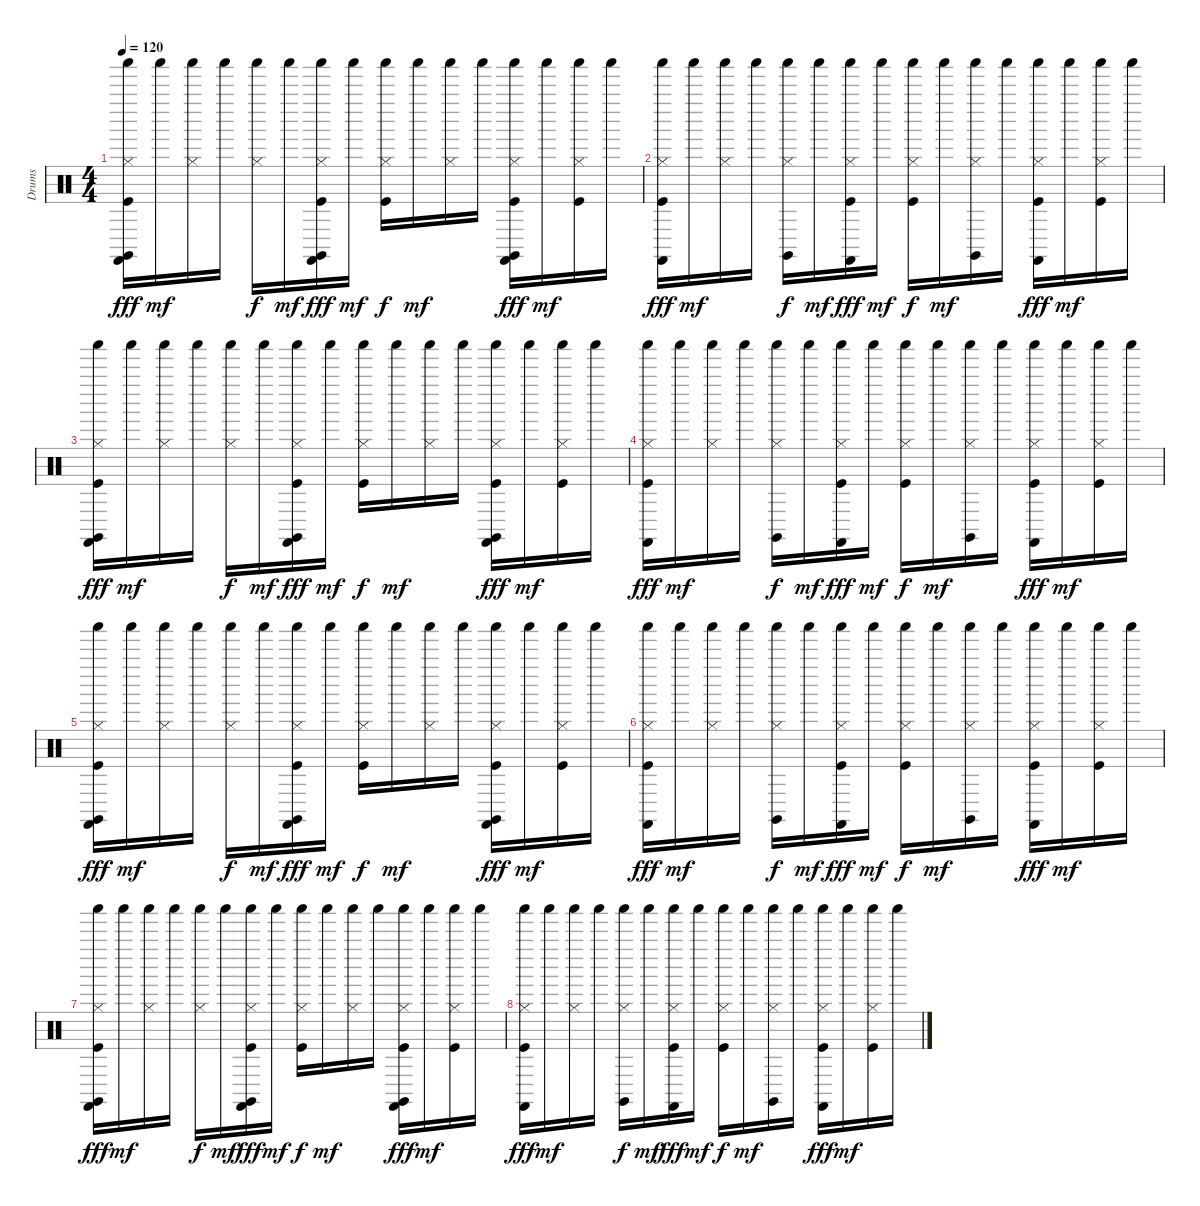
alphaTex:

\track ("Drums" "Drums") {instrument percussion}
\staff {score}
\articulation defaults
\ts (4 4)
\tempo 120
\clef neutral
\ks c
("Shaker (hit)" "Hi-Hat (closed)" "Castanets (hit)" "Claves (hit)" "Kick (hit)").16{dy fff} "Shaker (hit)".16{dy mf} ("Shaker (hit)" "Hi-Hat (closed)").16 "Shaker (hit)".16 ("Shaker (hit)" "Hi-Hat (closed)").16{dy f} "Shaker (hit)".16{dy mf} ("Shaker (hit)" "Hi-Hat (closed)" "Castanets (hit)" "Claves (hit)" "Kick (hit)").16{dy fff} "Shaker (hit)".16{dy mf} ("Shaker (hit)" "Hi-Hat (closed)" "Kick (hit)").16{dy f} "Shaker (hit)".16{dy mf} ("Shaker (hit)" "Hi-Hat (closed)").16 "Shaker (hit)".16 ("Shaker (hit)" "Hi-Hat (closed)" "Castanets (hit)" "Claves (hit)" "Kick (hit)").16{dy fff} "Shaker (hit)".16{dy mf} ("Shaker (hit)" "Hi-Hat (closed)" "Kick (hit)").16 "Shaker (hit)".16 |
("Shaker (hit)" "Hi-Hat (closed)" "Castanets (hit)" "Kick (hit)").16{dy fff} "Shaker (hit)".16{dy mf} ("Shaker (hit)" "Hi-Hat (closed)").16 "Shaker (hit)".16 ("Shaker (hit)" "Hi-Hat (closed)" "Claves (hit)").16{dy f} "Shaker (hit)".16{dy mf} ("Shaker (hit)" "Hi-Hat (closed)" "Castanets (hit)" "Kick (hit)").16{dy fff} "Shaker (hit)".16{dy mf} ("Shaker (hit)" "Hi-Hat (closed)" "Kick (hit)").16{dy f} "Shaker (hit)".16{dy mf} ("Shaker (hit)" "Hi-Hat (closed)" "Claves (hit)").16 "Shaker (hit)".16 ("Shaker (hit)" "Hi-Hat (closed)" "Castanets (hit)" "Kick (hit)").16{dy fff} "Shaker (hit)".16{dy mf} ("Shaker (hit)" "Hi-Hat (closed)" "Kick (hit)").16 "Shaker (hit)".16 |
("Shaker (hit)" "Hi-Hat (closed)" "Castanets (hit)" "Claves (hit)" "Kick (hit)").16{dy fff} "Shaker (hit)".16{dy mf} ("Shaker (hit)" "Hi-Hat (closed)").16 "Shaker (hit)".16 ("Shaker (hit)" "Hi-Hat (closed)").16{dy f} "Shaker (hit)".16{dy mf} ("Shaker (hit)" "Hi-Hat (closed)" "Castanets (hit)" "Claves (hit)" "Kick (hit)").16{dy fff} "Shaker (hit)".16{dy mf} ("Shaker (hit)" "Hi-Hat (closed)" "Kick (hit)").16{dy f} "Shaker (hit)".16{dy mf} ("Shaker (hit)" "Hi-Hat (closed)").16 "Shaker (hit)".16 ("Shaker (hit)" "Hi-Hat (closed)" "Castanets (hit)" "Claves (hit)" "Kick (hit)").16{dy fff} "Shaker (hit)".16{dy mf} ("Shaker (hit)" "Hi-Hat (closed)" "Kick (hit)").16 "Shaker (hit)".16 |
("Shaker (hit)" "Hi-Hat (closed)" "Castanets (hit)" "Kick (hit)").16{dy fff} "Shaker (hit)".16{dy mf} ("Shaker (hit)" "Hi-Hat (closed)").16 "Shaker (hit)".16 ("Shaker (hit)" "Hi-Hat (closed)" "Claves (hit)").16{dy f} "Shaker (hit)".16{dy mf} ("Shaker (hit)" "Hi-Hat (closed)" "Castanets (hit)" "Kick (hit)").16{dy fff} "Shaker (hit)".16{dy mf} ("Shaker (hit)" "Hi-Hat (closed)" "Kick (hit)").16{dy f} "Shaker (hit)".16{dy mf} ("Shaker (hit)" "Hi-Hat (closed)" "Claves (hit)").16 "Shaker (hit)".16 ("Shaker (hit)" "Hi-Hat (closed)" "Castanets (hit)" "Kick (hit)").16{dy fff} "Shaker (hit)".16{dy mf} ("Shaker (hit)" "Hi-Hat (closed)" "Kick (hit)").16 "Shaker (hit)".16 |
("Shaker (hit)" "Hi-Hat (closed)" "Castanets (hit)" "Claves (hit)" "Kick (hit)").16{dy fff} "Shaker (hit)".16{dy mf} ("Shaker (hit)" "Hi-Hat (closed)").16 "Shaker (hit)".16 ("Shaker (hit)" "Hi-Hat (closed)").16{dy f} "Shaker (hit)".16{dy mf} ("Shaker (hit)" "Hi-Hat (closed)" "Castanets (hit)" "Claves (hit)" "Kick (hit)").16{dy fff} "Shaker (hit)".16{dy mf} ("Shaker (hit)" "Hi-Hat (closed)" "Kick (hit)").16{dy f} "Shaker (hit)".16{dy mf} ("Shaker (hit)" "Hi-Hat (closed)").16 "Shaker (hit)".16 ("Shaker (hit)" "Hi-Hat (closed)" "Castanets (hit)" "Claves (hit)" "Kick (hit)").16{dy fff} "Shaker (hit)".16{dy mf} ("Shaker (hit)" "Hi-Hat (closed)" "Kick (hit)").16 "Shaker (hit)".16 |
("Shaker (hit)" "Hi-Hat (closed)" "Castanets (hit)" "Kick (hit)").16{dy fff} "Shaker (hit)".16{dy mf} ("Shaker (hit)" "Hi-Hat (closed)").16 "Shaker (hit)".16 ("Shaker (hit)" "Hi-Hat (closed)" "Claves (hit)").16{dy f} "Shaker (hit)".16{dy mf} ("Shaker (hit)" "Hi-Hat (closed)" "Castanets (hit)" "Kick (hit)").16{dy fff} "Shaker (hit)".16{dy mf} ("Shaker (hit)" "Hi-Hat (closed)" "Kick (hit)").16{dy f} "Shaker (hit)".16{dy mf} ("Shaker (hit)" "Hi-Hat (closed)" "Claves (hit)").16 "Shaker (hit)".16 ("Shaker (hit)" "Hi-Hat (closed)" "Castanets (hit)" "Kick (hit)").16{dy fff} "Shaker (hit)".16{dy mf} ("Shaker (hit)" "Hi-Hat (closed)" "Kick (hit)").16 "Shaker (hit)".16 |
("Shaker (hit)" "Hi-Hat (closed)" "Castanets (hit)" "Claves (hit)" "Kick (hit)").16{dy fff} "Shaker (hit)".16{dy mf} ("Shaker (hit)" "Hi-Hat (closed)").16 "Shaker (hit)".16 ("Shaker (hit)" "Hi-Hat (closed)").16{dy f} "Shaker (hit)".16{dy mf} ("Shaker (hit)" "Hi-Hat (closed)" "Castanets (hit)" "Claves (hit)" "Kick (hit)").16{dy fff} "Shaker (hit)".16{dy mf} ("Shaker (hit)" "Hi-Hat (closed)" "Kick (hit)").16{dy f} "Shaker (hit)".16{dy mf} ("Shaker (hit)" "Hi-Hat (closed)").16 "Shaker (hit)".16 ("Shaker (hit)" "Hi-Hat (closed)" "Castanets (hit)" "Claves (hit)" "Kick (hit)").16{dy fff} "Shaker (hit)".16{dy mf} ("Shaker (hit)" "Hi-Hat (closed)" "Kick (hit)").16 "Shaker (hit)".16 |
("Shaker (hit)" "Hi-Hat (closed)" "Castanets (hit)" "Kick (hit)").16{dy fff} "Shaker (hit)".16{dy mf} ("Shaker (hit)" "Hi-Hat (closed)").16 "Shaker (hit)".16 ("Shaker (hit)" "Hi-Hat (closed)" "Claves (hit)").16{dy f} "Shaker (hit)".16{dy mf} ("Shaker (hit)" "Hi-Hat (closed)" "Castanets (hit)" "Kick (hit)").16{dy fff} "Shaker (hit)".16{dy mf} ("Shaker (hit)" "Hi-Hat (closed)" "Kick (hit)").16{dy f} "Shaker (hit)".16{dy mf} ("Shaker (hit)" "Hi-Hat (closed)" "Claves (hit)").16 "Shaker (hit)".16 ("Shaker (hit)" "Hi-Hat (closed)" "Castanets (hit)" "Kick (hit)").16{dy fff} "Shaker (hit)".16{dy mf} ("Shaker (hit)" "Hi-Hat (closed)" "Kick (hit)").16 "Shaker (hit)".16
